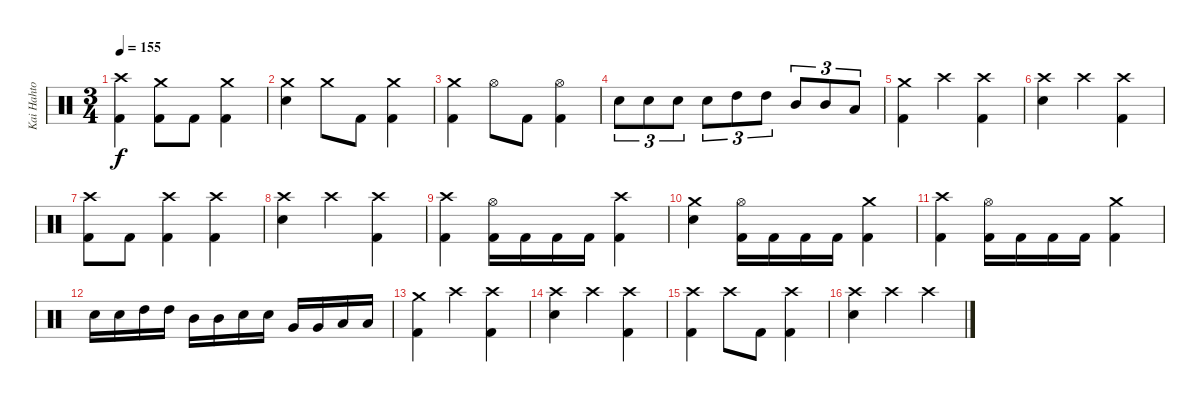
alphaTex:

\track ("Kai Hahto" "Kai Hahto") {instrument percussion}
\staff {score}
\articulation defaults
\ts (3 4)
\tempo 155
\clef neutral
\ks c
("Crash high (hit)" "Kick (hit) 2").4{dy f} ("Crash medium (hit)" "Kick (hit) 2").8 "Kick (hit) 2".8 ("Crash medium (hit)" "Kick (hit) 2").4 |
("Crash medium (hit)" "Electric Snare (hit)").4 "Crash medium (hit)".8 "Kick (hit) 2".8 ("Crash medium (hit)" "Kick (hit) 2").4 |
("Crash medium (hit)" "Kick (hit) 2").4 "Hi-Hat (open)".8 "Kick (hit) 2".8 ("Hi-Hat (open)" "Kick (hit) 2").4 |
"Electric Snare (hit)".8{tu (3 2)} "Electric Snare (hit)".8{tu (3 2)} "Electric Snare (hit)".8{tu (3 2)} "Electric Snare (hit)".8{tu (3 2)} "High Tom (hit)".8{tu (3 2)} "High Tom (hit)".8{tu (3 2)} "Mid Tom (hit)".8{tu (3 2)} "Mid Tom (hit)".8{tu (3 2)} "Low Tom (hit)".8{tu (3 2)} |
("Crash medium (hit)" "Kick (hit) 2").4 "Crash high (hit)".4 ("Crash high (hit)" "Kick (hit) 2").4 |
("Crash high (hit)" "Electric Snare (hit)").4 "Crash high (hit)".4 ("Crash high (hit)" "Kick (hit) 2").4 |
("Crash high (hit)" "Kick (hit) 2").8 "Kick (hit) 2".8 ("Crash high (hit)" "Kick (hit) 2").4 ("Crash high (hit)" "Kick (hit) 2").4 |
("Crash high (hit)" "Electric Snare (hit)").4 "Crash high (hit)".4 ("Crash high (hit)" "Kick (hit) 2").4 |
("Crash high (hit)" "Kick (hit) 2").4 ("Hi-Hat (open)" "Kick (hit) 2").16 "Kick (hit) 2".16 "Kick (hit) 2".16 "Kick (hit) 2".16 ("Crash high (hit)" "Kick (hit) 2").4 |
("Crash medium (hit)" "Electric Snare (hit)").4 ("Hi-Hat (open)" "Kick (hit) 2").16 "Kick (hit) 2".16 "Kick (hit) 2".16 "Kick (hit) 2".16 ("Crash medium (hit)" "Kick (hit) 2").4 |
("Crash high (hit)" "Kick (hit) 2").4 ("Hi-Hat (open)" "Kick (hit) 2").16 "Kick (hit) 2".16 "Kick (hit) 2".16 "Kick (hit) 2".16 ("Crash medium (hit)" "Kick (hit) 2").4 |
"Electric Snare (hit)".16 "Electric Snare (hit)".16 "High Tom (hit)".16 "High Tom (hit)".16 "Mid Tom (hit)".16 "Mid Tom (hit)".16 "Electric Snare (hit)".16 "Electric Snare (hit)".16 "Very Low Tom (hit)".16 "Very Low Tom (hit)".16 "Low Floor Tom (hit)".16 "Low Floor Tom (hit)".16 |
("Crash medium (hit)" "Kick (hit) 2").4 "Crash high (hit)".4 ("Crash high (hit)" "Kick (hit) 2").4 |
("Crash high (hit)" "Electric Snare (hit)").4 "Crash high (hit)".4 ("Crash high (hit)" "Kick (hit) 2").4 |
("Crash high (hit)" "Kick (hit) 2").4 "Crash high (hit)".8 "Kick (hit) 2".8 ("Crash high (hit)" "Kick (hit) 2").4 |
("Crash high (hit)" "Electric Snare (hit)").4 "Crash high (hit)".4 "Crash high (hit)".4
